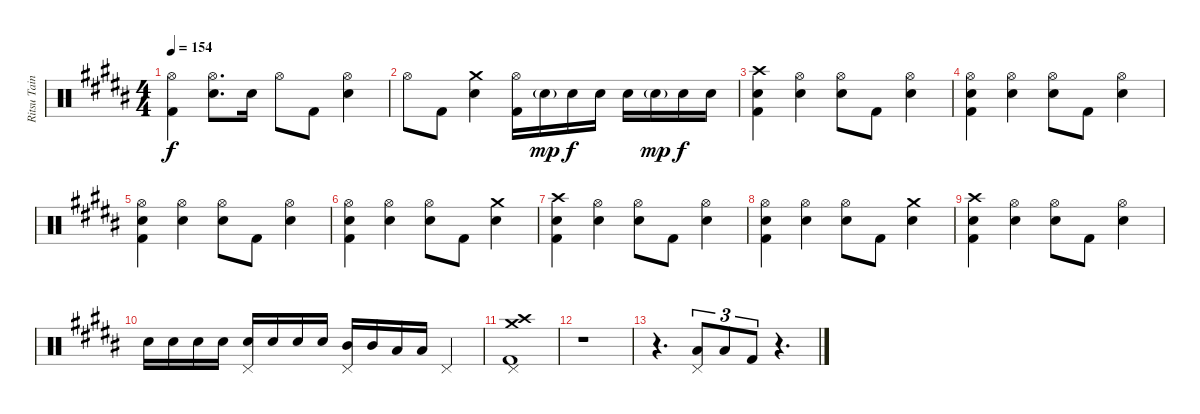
\track ("Ritsu Tainaka" "Ritsu Tain") {instrument percussion}
\staff {score}
\articulation defaults
\ts (4 4)
\tempo 154
\clef neutral
\ks b
("Hi-Hat (open)" "Kick (hit) 2").4{dy f} ("Hi-Hat (open)" "Snare (hit) 2").8{d} "Snare (hit) 2".16 "Hi-Hat (open)".8 "Kick (hit) 2".8 ("Hi-Hat (open)" "Snare (hit) 2").4 |
"Hi-Hat (open)".8 "Kick (hit) 2".8 ("Crash medium (hit)" "Snare (hit) 2").4 ("Hi-Hat (open)" "Kick (hit) 2").16 "Snare (hit) 2"{g}.16{dy mp} "Snare (hit) 2".16{dy f} "Snare (hit) 2".16 "Snare (hit) 2".16 "Snare (hit) 2"{g}.16{dy mp} "Snare (hit) 2".16{dy f} "Snare (hit) 2".16 |
("Crash high (hit)" "Snare (hit) 2" "Kick (hit) 2").4 ("Hi-Hat (open)" "Snare (hit) 2").4 ("Hi-Hat (open)" "Snare (hit) 2").8 "Kick (hit) 2".8 ("Hi-Hat (open)" "Snare (hit) 2").4 |
("Hi-Hat (open)" "Snare (hit) 2" "Kick (hit) 2").4 ("Hi-Hat (open)" "Snare (hit) 2").4 ("Hi-Hat (open)" "Snare (hit) 2").8 "Kick (hit) 2".8 ("Hi-Hat (open)" "Snare (hit) 2").4 |
("Hi-Hat (open)" "Snare (hit) 2" "Kick (hit) 2").4 ("Hi-Hat (open)" "Snare (hit) 2").4 ("Hi-Hat (open)" "Snare (hit) 2").8 "Kick (hit) 2".8 ("Hi-Hat (open)" "Snare (hit) 2").4 |
("Hi-Hat (open)" "Snare (hit) 2" "Kick (hit) 2").4 ("Hi-Hat (open)" "Snare (hit) 2").4 ("Hi-Hat (open)" "Snare (hit) 2").8 "Kick (hit) 2".8 ("Crash medium (hit)" "Snare (hit) 2").4 |
("Crash high (hit)" "Snare (hit) 2" "Kick (hit) 2").4 ("Hi-Hat (open)" "Snare (hit) 2").4 ("Hi-Hat (open)" "Snare (hit) 2").8 "Kick (hit) 2".8 ("Hi-Hat (open)" "Snare (hit) 2").4 |
("Hi-Hat (open)" "Snare (hit) 2" "Kick (hit) 2").4 ("Hi-Hat (open)" "Snare (hit) 2").4 ("Hi-Hat (open)" "Snare (hit) 2").8 "Kick (hit) 2".8 ("Crash medium (hit)" "Snare (hit) 2").4 |
("Crash high (hit)" "Snare (hit) 2" "Kick (hit) 2").4 ("Hi-Hat (open)" "Snare (hit) 2").4 ("Hi-Hat (open)" "Snare (hit) 2").8 "Kick (hit) 2".8 ("Hi-Hat (open)" "Snare (hit) 2").4 |
"Snare (hit) 2".16 "Snare (hit) 2".16 "Snare (hit) 2".16 "Snare (hit) 2".16 ("Pedal Hi-Hat (hit)" "Snare (hit) 2").16 "Snare (hit) 2".16 "Snare (hit) 2".16 "Snare (hit) 2".16 ("Pedal Hi-Hat (hit)" "Mid Tom (hit)").16 "Mid Tom (hit)".16 "Low Tom (hit)".16 "Low Tom (hit)".16 "Pedal Hi-Hat (hit)".4 |
("Crash high (hit)" "Pedal Hi-Hat (hit)" "Crash medium (hit)" "Kick (hit) 2").1 |
r.1 |
r.4{d} ("Pedal Hi-Hat (hit)" "Low Tom (hit)").8{tu (3 2)} "Low Floor Tom (hit)".8{tu (3 2)} "Kick (hit) 2".8{tu (3 2)} r.4{d}
